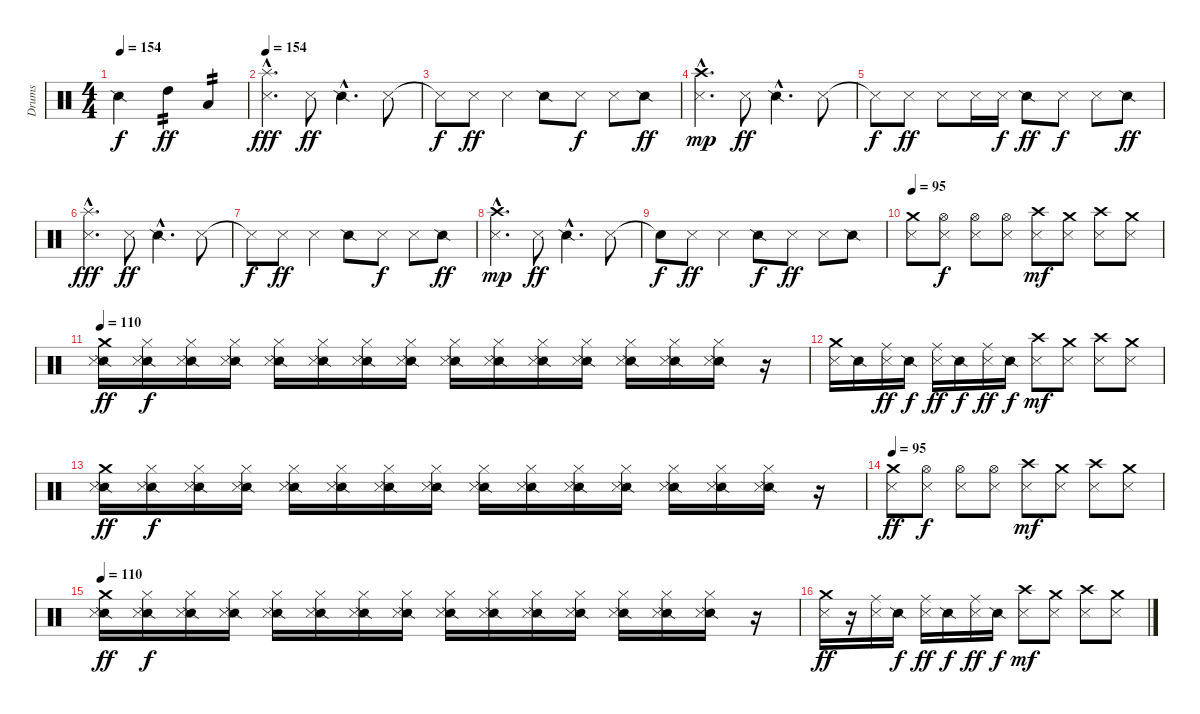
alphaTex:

\track ("Drums" "Drums") {instrument percussion}
\staff {score}
\articulation defaults
\ts (4 4)
\tempo 154
\clef neutral
\ks c "Snare (side stick) 2"{t}.2{dy f} "High Tom (hit)".4{tp 2 dy ff} "Low Tom (hit)".4{tp 2}
|
\tempo 154
("Metronome (hit)"{hac} "Splash (hit)"{hac}).4{d dy fff} "Metronome (hit)".8{dy ff} "Snare (side stick) 2"{hac}.4{d} "Metronome (hit)".8 |
"Metronome (hit)"{t}.8{dy f} "Metronome (hit)".8{dy ff} "Metronome (hit)".4 "Snare (side stick) 2".8 "Metronome (hit)".8{dy f} "Metronome (hit)".8 "Snare (side stick) 2".8{dy ff} |
("Metronome (hit)"{hac} "Crash high (hit)"{hac}).4{d dy mp} "Metronome (hit)".8{dy ff} "Snare (side stick) 2"{hac}.4{d} "Metronome (hit)".8 |
"Metronome (hit)"{t}.8{dy f} "Metronome (hit)".8{dy ff} "Metronome (hit)".8 "Metronome (hit)".16 "Metronome (hit)".16{dy f} "Snare (side stick) 2".8{dy ff} "Metronome (hit)".8{dy f} "Metronome (hit)".8 "Snare (side stick) 2".8{dy ff} |
("Metronome (hit)"{hac} "Splash (hit)"{hac}).4{d dy fff} "Metronome (hit)".8{dy ff} "Snare (side stick) 2"{hac}.4{d} "Metronome (hit)".8 |
"Metronome (hit)"{t}.8{dy f} "Metronome (hit)".8{dy ff} "Metronome (hit)".4 "Snare (side stick) 2".8 "Metronome (hit)".8{dy f} "Metronome (hit)".8 "Snare (side stick) 2".8{dy ff} |
("Metronome (hit)"{hac} "Crash high (hit)"{hac}).4{d dy mp} "Metronome (hit)".8{dy ff} "Snare (side stick) 2"{hac}.4{d} "Metronome (hit)".8 |
"Snare (hit)"{t}.8{dy f} "Metronome (hit)".8{dy ff} "Metronome (hit)".4 "Snare (side stick) 2".8{dy f} "Metronome (hit)".8{dy ff} "Metronome (hit)".8 "Snare (side stick) 2".8 |
\tempo 95
("Crash medium (hit)" "Metronome (hit)").8 ("Hi-Hat (open)" "Metronome (hit)").8{dy f} ("Hi-Hat (open)" "Metronome (hit)").8 ("Hi-Hat (open)" "Metronome (hit)").8 ("Crash high (hit)" "Metronome (hit)").8{dy mf} ("Crash medium (hit)" "Metronome (hit)").8 ("Crash high (hit)" "Metronome (hit)").8 ("Crash medium (hit)" "Metronome (hit)").8 |
\tempo 110
("Crash medium (hit)" "Snare (side stick) 2" "Metronome (hit)").16{dy ff} ("Hi-Hat (closed)" "Snare (side stick) 2" "Metronome (hit)").16{dy f} ("Hi-Hat (closed)" "Snare (side stick) 2" "Metronome (hit)").16 ("Hi-Hat (closed)" "Snare (side stick) 2" "Metronome (hit)").16 ("Hi-Hat (closed)" "Snare (side stick) 2" "Metronome (hit)").16 ("Hi-Hat (closed)" "Snare (side stick) 2" "Metronome (hit)").16 ("Hi-Hat (closed)" "Snare (side stick) 2" "Metronome (hit)").16 ("Hi-Hat (closed)" "Snare (side stick) 2" "Metronome (hit)").16 ("Hi-Hat (closed)" "Snare (side stick) 2" "Metronome (hit)").16 ("Hi-Hat (closed)" "Snare (side stick) 2" "Metronome (hit)").16 ("Hi-Hat (closed)" "Snare (side stick) 2" "Metronome (hit)").16 ("Hi-Hat (closed)" "Snare (side stick) 2" "Metronome (hit)").16 ("Hi-Hat (closed)" "Snare (side stick) 2" "Metronome (hit)").16 ("Hi-Hat (closed)" "Snare (side stick) 2" "Metronome (hit)").16 ("Hi-Hat (closed)" "Snare (side stick) 2" "Metronome (hit)").16 r.16 |
("Crash medium (hit)" "Metronome (hit)").16 "Snare (side stick) 2".16 ("Ride (middle)" "Metronome (hit)").16{dy ff} "Snare (side stick) 2".16{dy f} ("Ride (middle)" "Metronome (hit)").16{dy ff} "Snare (side stick) 2".16{dy f} ("Ride (middle)" "Metronome (hit)").16{dy ff} "Snare (side stick) 2".16{dy f} ("Crash high (hit)" "Metronome (hit)").8{dy mf} ("Crash medium (hit)" "Metronome (hit)").8 ("Crash high (hit)" "Metronome (hit)").8 ("Crash medium (hit)" "Metronome (hit)").8 |
("Crash medium (hit)" "Snare (side stick) 2" "Metronome (hit)").16{dy ff} ("Hi-Hat (closed)" "Snare (side stick) 2" "Metronome (hit)").16{dy f} ("Hi-Hat (closed)" "Snare (side stick) 2" "Metronome (hit)").16 ("Hi-Hat (closed)" "Snare (side stick) 2" "Metronome (hit)").16 ("Hi-Hat (closed)" "Snare (side stick) 2" "Metronome (hit)").16 ("Hi-Hat (closed)" "Snare (side stick) 2" "Metronome (hit)").16 ("Hi-Hat (closed)" "Snare (side stick) 2" "Metronome (hit)").16 ("Hi-Hat (closed)" "Snare (side stick) 2" "Metronome (hit)").16 ("Hi-Hat (closed)" "Snare (side stick) 2" "Metronome (hit)").16 ("Hi-Hat (closed)" "Snare (side stick) 2" "Metronome (hit)").16 ("Hi-Hat (closed)" "Snare (side stick) 2" "Metronome (hit)").16 ("Hi-Hat (closed)" "Snare (side stick) 2" "Metronome (hit)").16 ("Hi-Hat (closed)" "Snare (side stick) 2" "Metronome (hit)").16 ("Hi-Hat (closed)" "Snare (side stick) 2" "Metronome (hit)").16 ("Hi-Hat (closed)" "Snare (side stick) 2" "Metronome (hit)").16 r.16 |
\tempo 95
("Crash medium (hit)" "Metronome (hit)").8{dy ff} ("Hi-Hat (open)" "Metronome (hit)").8{dy f} ("Hi-Hat (open)" "Metronome (hit)").8 ("Hi-Hat (open)" "Metronome (hit)").8 ("Crash high (hit)" "Metronome (hit)").8{dy mf} ("Crash medium (hit)" "Metronome (hit)").8 ("Crash high (hit)" "Metronome (hit)").8 ("Crash medium (hit)" "Metronome (hit)").8 |
\tempo 110
("Crash medium (hit)" "Snare (side stick) 2" "Metronome (hit)").16{dy ff} ("Hi-Hat (closed)" "Snare (side stick) 2" "Metronome (hit)").16{dy f} ("Hi-Hat (closed)" "Snare (side stick) 2" "Metronome (hit)").16 ("Hi-Hat (closed)" "Snare (side stick) 2" "Metronome (hit)").16 ("Hi-Hat (closed)" "Snare (side stick) 2" "Metronome (hit)").16 ("Hi-Hat (closed)" "Snare (side stick) 2" "Metronome (hit)").16 ("Hi-Hat (closed)" "Snare (side stick) 2" "Metronome (hit)").16 ("Hi-Hat (closed)" "Snare (side stick) 2" "Metronome (hit)").16 ("Hi-Hat (closed)" "Snare (side stick) 2" "Metronome (hit)").16 ("Hi-Hat (closed)" "Snare (side stick) 2" "Metronome (hit)").16 ("Hi-Hat (closed)" "Snare (side stick) 2" "Metronome (hit)").16 ("Hi-Hat (closed)" "Snare (side stick) 2" "Metronome (hit)").16 ("Hi-Hat (closed)" "Snare (side stick) 2" "Metronome (hit)").16 ("Hi-Hat (closed)" "Snare (side stick) 2" "Metronome (hit)").16 ("Hi-Hat (closed)" "Snare (side stick) 2" "Metronome (hit)").16 r.16 |
("Crash medium (hit)" "Metronome (hit)").16{dy ff} r.16 ("Ride (middle)" "Metronome (hit)").16 "Snare (side stick) 2".16{dy f} ("Ride (middle)" "Metronome (hit)").16{dy ff} "Snare (side stick) 2".16{dy f} ("Ride (middle)" "Metronome (hit)").16{dy ff} "Snare (side stick) 2".16{dy f} ("Crash high (hit)" "Metronome (hit)").8{dy mf} ("Crash medium (hit)" "Metronome (hit)").8 ("Crash high (hit)" "Metronome (hit)").8 ("Crash medium (hit)" "Metronome (hit)").8
